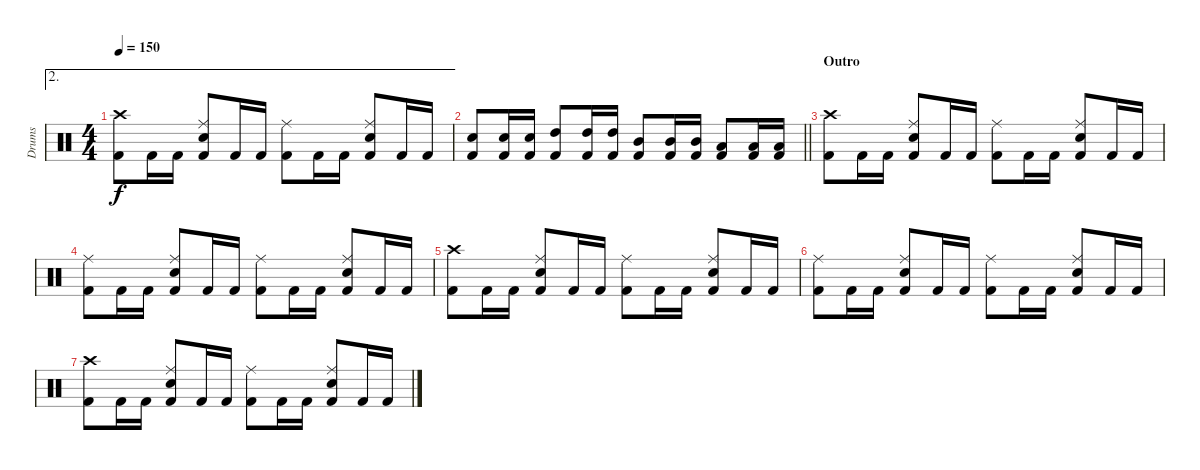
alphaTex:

\track ("Drums" "Drums") {instrument percussion}
\staff {score}
\articulation defaults
\ae 2
\ts (4 4)
\tempo 150
\clef neutral
\ks c
("Crash high (hit)" "Kick (hit) 2").8{dy f} "Kick (hit) 2".16 "Kick (hit) 2".16 ("Ride (middle)" "Snare (hit) 2" "Kick (hit) 2").8 "Kick (hit) 2".16 "Kick (hit) 2".16 ("Ride (middle)" "Kick (hit) 2").8 "Kick (hit) 2".16 "Kick (hit) 2".16 ("Ride (middle)" "Snare (hit) 2" "Kick (hit) 2").8 "Kick (hit) 2".16 "Kick (hit) 2".16 |
\barLineRight lightlight
("Snare (hit) 2" "Kick (hit) 2").8 ("Snare (hit) 2" "Kick (hit) 2").16 ("Snare (hit) 2" "Kick (hit) 2").16 ("High Tom (hit)" "Kick (hit) 2").8 ("High Tom (hit)" "Kick (hit) 2").16 ("High Tom (hit)" "Kick (hit) 2").16 ("Mid Tom (hit)" "Kick (hit) 2").8 ("Mid Tom (hit)" "Kick (hit) 2").16 ("Mid Tom (hit)" "Kick (hit) 2").16 ("Low Tom (hit)" "Kick (hit) 2").8 ("Low Tom (hit)" "Kick (hit) 2").16 ("Low Tom (hit)" "Kick (hit) 2").16 |
\section ("" "Outro")
("Crash high (hit)" "Kick (hit) 2").8 "Kick (hit) 2".16 "Kick (hit) 2".16 ("Ride (middle)" "Snare (hit) 2" "Kick (hit) 2").8 "Kick (hit) 2".16 "Kick (hit) 2".16 ("Ride (middle)" "Kick (hit) 2").8 "Kick (hit) 2".16 "Kick (hit) 2".16 ("Ride (middle)" "Snare (hit) 2" "Kick (hit) 2").8 "Kick (hit) 2".16 "Kick (hit) 2".16 |
("Ride (middle)" "Kick (hit) 2").8 "Kick (hit) 2".16 "Kick (hit) 2".16 ("Ride (middle)" "Snare (hit) 2" "Kick (hit) 2").8 "Kick (hit) 2".16 "Kick (hit) 2".16 ("Ride (middle)" "Kick (hit) 2").8 "Kick (hit) 2".16 "Kick (hit) 2".16 ("Ride (middle)" "Snare (hit) 2" "Kick (hit) 2").8 "Kick (hit) 2".16 "Kick (hit) 2".16 |
("Crash high (hit)" "Kick (hit) 2").8 "Kick (hit) 2".16 "Kick (hit) 2".16 ("Ride (middle)" "Snare (hit) 2" "Kick (hit) 2").8 "Kick (hit) 2".16 "Kick (hit) 2".16 ("Ride (middle)" "Kick (hit) 2").8 "Kick (hit) 2".16 "Kick (hit) 2".16 ("Ride (middle)" "Snare (hit) 2" "Kick (hit) 2").8 "Kick (hit) 2".16 "Kick (hit) 2".16 |
("Ride (middle)" "Kick (hit) 2").8 "Kick (hit) 2".16 "Kick (hit) 2".16 ("Ride (middle)" "Snare (hit) 2" "Kick (hit) 2").8 "Kick (hit) 2".16 "Kick (hit) 2".16 ("Ride (middle)" "Kick (hit) 2").8 "Kick (hit) 2".16 "Kick (hit) 2".16 ("Ride (middle)" "Snare (hit) 2" "Kick (hit) 2").8 "Kick (hit) 2".16 "Kick (hit) 2".16 |
("Crash high (hit)" "Kick (hit) 2").8 "Kick (hit) 2".16 "Kick (hit) 2".16 ("Ride (middle)" "Snare (hit) 2" "Kick (hit) 2").8 "Kick (hit) 2".16 "Kick (hit) 2".16 ("Ride (middle)" "Kick (hit) 2").8 "Kick (hit) 2".16 "Kick (hit) 2".16 ("Ride (middle)" "Snare (hit) 2" "Kick (hit) 2").8 "Kick (hit) 2".16 "Kick (hit) 2".16
